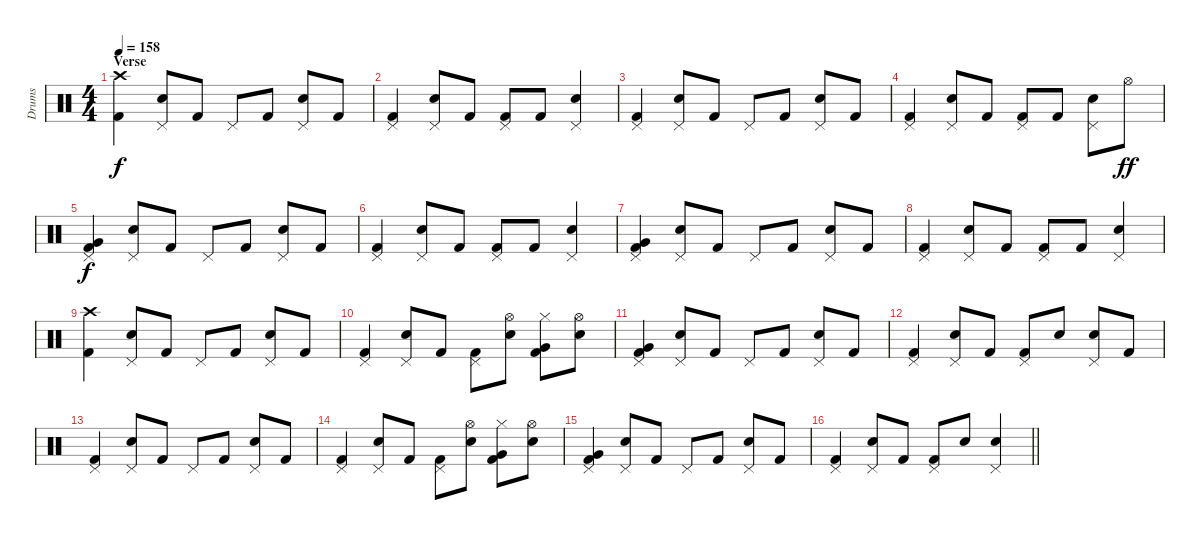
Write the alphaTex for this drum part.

\track ("Drums" "Drums") {instrument percussion}
\staff {score}
\articulation defaults
\ts (4 4)
\section ("" "Verse")
\tempo 158
\clef neutral
\ks c
("Crash high (hit)" "Kick (hit) 2").4{dy f} ("Pedal Hi-Hat (hit)" "Electric Snare (hit)").8 "Kick (hit) 2".8 "Pedal Hi-Hat (hit)".8 "Kick (hit) 2".8 ("Pedal Hi-Hat (hit)" "Electric Snare (hit)").8 "Kick (hit) 2".8 |
("Pedal Hi-Hat (hit)" "Kick (hit) 2").4 ("Pedal Hi-Hat (hit)" "Electric Snare (hit)").8 "Kick (hit) 2".8 ("Pedal Hi-Hat (hit)" "Kick (hit) 2").8 "Kick (hit) 2".8 ("Pedal Hi-Hat (hit)" "Electric Snare (hit)").4 |
("Pedal Hi-Hat (hit)" "Kick (hit) 2").4 ("Pedal Hi-Hat (hit)" "Electric Snare (hit)").8 "Kick (hit) 2".8 "Pedal Hi-Hat (hit)".8 "Kick (hit) 2".8 ("Pedal Hi-Hat (hit)" "Electric Snare (hit)").8 "Kick (hit) 2".8 |
("Pedal Hi-Hat (hit)" "Kick (hit) 2").4 ("Pedal Hi-Hat (hit)" "Electric Snare (hit)").8 "Kick (hit) 2".8 ("Pedal Hi-Hat (hit)" "Kick (hit) 2").8 "Kick (hit) 2".8 ("Pedal Hi-Hat (hit)" "Electric Snare (hit)").8 "Hi-Hat (open)".8{dy ff} |
("Pedal Hi-Hat (hit)" "Very Low Tom (hit)" "Kick (hit) 2").4{dy f} ("Pedal Hi-Hat (hit)" "Electric Snare (hit)").8 "Kick (hit) 2".8 "Pedal Hi-Hat (hit)".8 "Kick (hit) 2".8 ("Pedal Hi-Hat (hit)" "Electric Snare (hit)").8 "Kick (hit) 2".8 |
("Pedal Hi-Hat (hit)" "Kick (hit) 2").4 ("Pedal Hi-Hat (hit)" "Electric Snare (hit)").8 "Kick (hit) 2".8 ("Pedal Hi-Hat (hit)" "Kick (hit) 2").8 "Kick (hit) 2".8 ("Pedal Hi-Hat (hit)" "Electric Snare (hit)").4 |
("Pedal Hi-Hat (hit)" "Very Low Tom (hit)" "Kick (hit) 2").4 ("Pedal Hi-Hat (hit)" "Electric Snare (hit)").8 "Kick (hit) 2".8 "Pedal Hi-Hat (hit)".8 "Kick (hit) 2".8 ("Pedal Hi-Hat (hit)" "Electric Snare (hit)").8 "Kick (hit) 2".8 |
("Pedal Hi-Hat (hit)" "Kick (hit) 2").4 ("Pedal Hi-Hat (hit)" "Electric Snare (hit)").8 "Kick (hit) 2".8 ("Pedal Hi-Hat (hit)" "Kick (hit) 2").8 "Kick (hit) 2".8 ("Pedal Hi-Hat (hit)" "Electric Snare (hit)").4 |
("Crash high (hit)" "Kick (hit) 2").4 ("Pedal Hi-Hat (hit)" "Electric Snare (hit)").8 "Kick (hit) 2".8 "Pedal Hi-Hat (hit)".8 "Kick (hit) 2".8 ("Pedal Hi-Hat (hit)" "Electric Snare (hit)").8 "Kick (hit) 2".8 |
("Pedal Hi-Hat (hit)" "Kick (hit) 2").4 ("Pedal Hi-Hat (hit)" "Electric Snare (hit)").8 "Kick (hit) 2".8 ("Pedal Hi-Hat (hit)" "Kick (hit) 2").8 ("Hi-Hat (open)" "Electric Snare (hit)").8 ("Hi-Hat (closed)" "Very Low Tom (hit)" "Kick (hit) 2").8 ("Hi-Hat (open)" "Electric Snare (hit)").8 |
("Pedal Hi-Hat (hit)" "Very Low Tom (hit)" "Kick (hit) 2").4 ("Pedal Hi-Hat (hit)" "Electric Snare (hit)").8 "Kick (hit) 2".8 "Pedal Hi-Hat (hit)".8 "Kick (hit) 2".8 ("Pedal Hi-Hat (hit)" "Electric Snare (hit)").8 "Kick (hit) 2".8 |
("Pedal Hi-Hat (hit)" "Kick (hit) 2").4 ("Pedal Hi-Hat (hit)" "Electric Snare (hit)").8 "Kick (hit) 2".8 ("Pedal Hi-Hat (hit)" "Kick (hit) 2").8 "Electric Snare (hit)".8 ("Pedal Hi-Hat (hit)" "Electric Snare (hit)").8 "Kick (hit) 2".8 |
("Pedal Hi-Hat (hit)" "Kick (hit) 2").4 ("Pedal Hi-Hat (hit)" "Electric Snare (hit)").8 "Kick (hit) 2".8 "Pedal Hi-Hat (hit)".8 "Kick (hit) 2".8 ("Pedal Hi-Hat (hit)" "Electric Snare (hit)").8 "Kick (hit) 2".8 |
("Pedal Hi-Hat (hit)" "Kick (hit) 2").4 ("Pedal Hi-Hat (hit)" "Electric Snare (hit)").8 "Kick (hit) 2".8 ("Pedal Hi-Hat (hit)" "Kick (hit) 2").8 ("Hi-Hat (open)" "Electric Snare (hit)").8 ("Hi-Hat (closed)" "Very Low Tom (hit)" "Kick (hit) 2").8 ("Hi-Hat (open)" "Electric Snare (hit)").8 |
("Pedal Hi-Hat (hit)" "Very Low Tom (hit)" "Kick (hit) 2").4 ("Pedal Hi-Hat (hit)" "Electric Snare (hit)").8 "Kick (hit) 2".8 "Pedal Hi-Hat (hit)".8 "Kick (hit) 2".8 ("Pedal Hi-Hat (hit)" "Electric Snare (hit)").8 "Kick (hit) 2".8 |
\barLineRight lightlight
("Pedal Hi-Hat (hit)" "Kick (hit) 2").4 ("Pedal Hi-Hat (hit)" "Electric Snare (hit)").8 "Kick (hit) 2".8 ("Pedal Hi-Hat (hit)" "Kick (hit) 2").8 "Electric Snare (hit)".8 ("Pedal Hi-Hat (hit)" "Electric Snare (hit)").4
